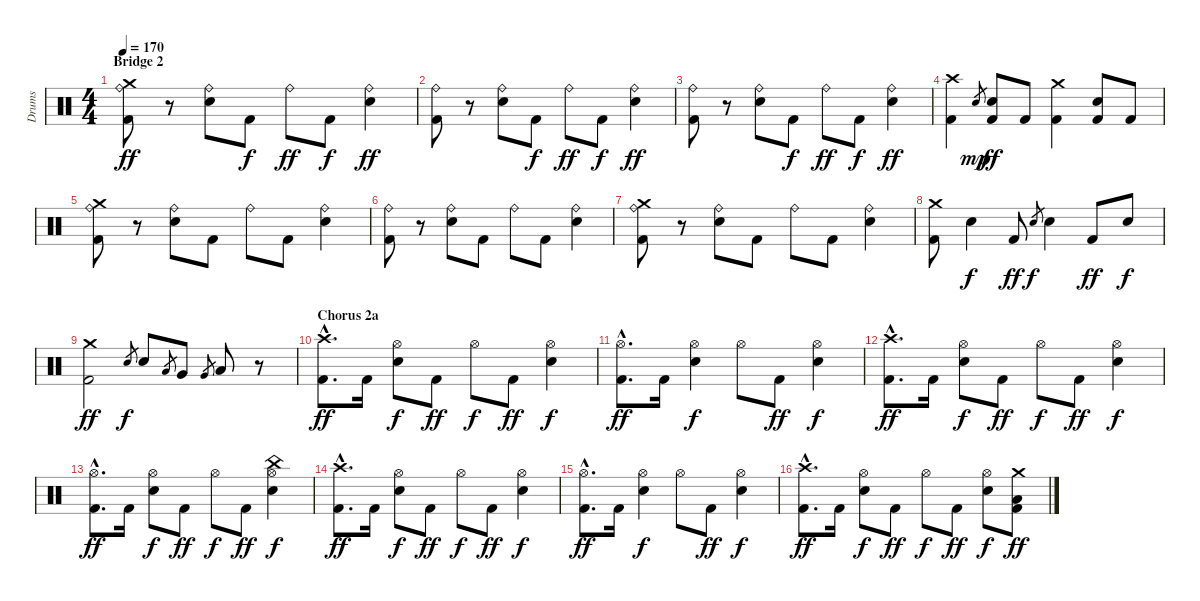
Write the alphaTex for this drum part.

\track ("Drums" "Drums") {instrument percussion}
\staff {score}
\articulation defaults
\ts (4 4)
\section ("" "Bridge 2")
\tempo 170
\clef neutral
\ks c
("Crash medium (hit)" "Ride (bell)" "Kick (hit) 2").8{dy ff} r.8 ("Ride (bell)" "Snare (hit) 2").8 "Kick (hit) 2".8{dy f} "Ride (bell)".8{dy ff} "Kick (hit) 2".8{dy f} ("Ride (bell)" "Snare (hit) 2").4{dy ff} |
("Ride (bell)" "Kick (hit) 2").8 r.8 ("Ride (bell)" "Snare (hit) 2").8 "Kick (hit) 2".8{dy f} "Ride (bell)".8{dy ff} "Kick (hit) 2".8{dy f} ("Ride (bell)" "Snare (hit) 2").4{dy ff} |
("Ride (bell)" "Kick (hit) 2").8 r.8 ("Ride (bell)" "Snare (hit) 2").8 "Kick (hit) 2".8{dy f} "Ride (bell)".8{dy ff} "Kick (hit) 2".8{dy f} ("Ride (bell)" "Snare (hit) 2").4{dy ff} |
("Crash high (hit)" "Kick (hit) 2").4 "Snare (hit) 2".8{gr dy mp} ("Snare (hit) 2" "Kick (hit) 2").8{dy ff} "Kick (hit) 2".8 ("Crash medium (hit)" "Kick (hit) 2").4 ("Snare (hit) 2" "Kick (hit) 2").8 "Kick (hit) 2".8 |
("Crash medium (hit)" "Ride (bell)" "Kick (hit) 2").8 r.8 ("Ride (bell)" "Snare (hit) 2").8 "Kick (hit) 2".8 "Ride (bell)".8 "Kick (hit) 2".8 ("Ride (bell)" "Snare (hit) 2").4 |
("Ride (bell)" "Kick (hit) 2").8 r.8 ("Ride (bell)" "Snare (hit) 2").8 "Kick (hit) 2".8 "Ride (bell)".8 "Kick (hit) 2".8 ("Ride (bell)" "Snare (hit) 2").4 |
("Crash medium (hit)" "Ride (bell)" "Kick (hit) 2").8 r.8 ("Ride (bell)" "Snare (hit) 2").8 "Kick (hit) 2".8 "Ride (bell)".8 "Kick (hit) 2".8 ("Ride (bell)" "Snare (hit) 2").4 |
("Crash medium (hit)" "Kick (hit) 2").8 "Snare (hit) 2".4{dy f} "Kick (hit) 2".8{dy ff} "Snare (hit) 2".8{gr dy f} "Snare (hit) 2".4 "Kick (hit) 2".8{dy ff} "Snare (hit) 2".8{dy f} |
("Crash medium (hit)" "Kick (hit) 2").2{dy ff} "Snare (hit) 2".8{gr dy f} "Snare (hit) 2".8 "Low Tom (hit)".8{gr} "Very Low Tom (hit)".8 "Very Low Tom (hit)".8{gr} "Low Floor Tom (hit)".8 r.8 |
\section ("" "Chorus 2a")
("Crash high (hit)"{hac} "Kick (hit) 2"{hac}).8{d dy ff} "Kick (hit) 2".16 ("Hi-Hat (open)" "Snare (hit) 2").8{dy f} "Kick (hit) 2".8{dy ff} "Hi-Hat (open)".8{dy f} "Kick (hit) 2".8{dy ff} ("Hi-Hat (open)" "Snare (hit) 2").4{dy f} |
("Hi-Hat (open)"{hac} "Kick (hit) 2"{hac}).8{d dy ff} "Kick (hit) 2".16 ("Hi-Hat (open)" "Snare (hit) 2").4{dy f} "Hi-Hat (open)".8 "Kick (hit) 2".8{dy ff} ("Hi-Hat (open)" "Snare (hit) 2").4{dy f} |
("Crash high (hit)"{hac} "Kick (hit) 2"{hac}).8{d dy ff} "Kick (hit) 2".16 ("Hi-Hat (open)" "Snare (hit) 2").8{dy f} "Kick (hit) 2".8{dy ff} "Hi-Hat (open)".8{dy f} "Kick (hit) 2".8{dy ff} ("Hi-Hat (open)" "Snare (hit) 2").4{dy f} |
("Hi-Hat (open)"{hac} "Kick (hit) 2"{hac}).8{d dy ff} "Kick (hit) 2".16 ("Hi-Hat (open)" "Snare (hit) 2").8{dy f} "Kick (hit) 2".8{dy ff} "Hi-Hat (open)".8{dy f} "Kick (hit) 2".8{dy ff} ("China (hit)" "Hi-Hat (open)" "Snare (hit) 2").4{dy f} |
("Crash high (hit)"{hac} "Kick (hit) 2"{hac}).8{d dy ff} "Kick (hit) 2".16 ("Hi-Hat (open)" "Snare (hit) 2").8{dy f} "Kick (hit) 2".8{dy ff} "Hi-Hat (open)".8{dy f} "Kick (hit) 2".8{dy ff} ("Hi-Hat (open)" "Snare (hit) 2").4{dy f} |
("Hi-Hat (open)"{hac} "Kick (hit) 2"{hac}).8{d dy ff} "Kick (hit) 2".16 ("Hi-Hat (open)" "Snare (hit) 2").4{dy f} "Hi-Hat (open)".8 "Kick (hit) 2".8{dy ff} ("Hi-Hat (open)" "Snare (hit) 2").4{dy f} |
("Crash high (hit)"{hac} "Kick (hit) 2"{hac}).8{d dy ff} "Kick (hit) 2".16 ("Hi-Hat (open)" "Snare (hit) 2").8{dy f} "Kick (hit) 2".8{dy ff} "Hi-Hat (open)".8{dy f} "Kick (hit) 2".8{dy ff} ("Hi-Hat (open)" "Snare (hit) 2").8{dy f} ("Crash medium (hit)" "Low Floor Tom (hit)" "Kick (hit) 2").8{dy ff}
